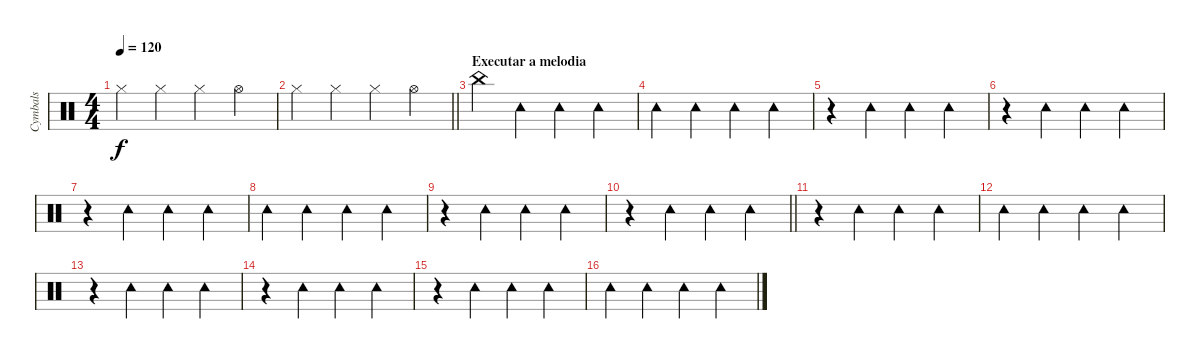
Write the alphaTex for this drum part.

\track ("Cymbals" "Cymbals") {instrument percussion}
\staff {score}
\articulation defaults
\ts (4 4)
\tempo 120
\clef neutral
\ks c "Hi-Hat (closed)".4{dy f} "Hi-Hat (closed)".4 "Hi-Hat (closed)".4 "Hi-Hat (open)".4
|
\barLineRight lightlight "Hi-Hat (closed)".4 "Hi-Hat (closed)".4 "Hi-Hat (closed)".4 "Hi-Hat (open)".4
|
\section ("" "Executar a melodia")
"China (hit)".4 "Tambourine (hit)".4 "Tambourine (hit)".4 "Tambourine (hit)".4 |
"Tambourine (hit)".4 "Tambourine (hit)".4 "Tambourine (hit)".4 "Tambourine (hit)".4 |
r.4 "Tambourine (hit)".4 "Tambourine (hit)".4 "Tambourine (hit)".4 |
r.4 "Tambourine (hit)".4 "Tambourine (hit)".4 "Tambourine (hit)".4 |
r.4 "Tambourine (hit)".4 "Tambourine (hit)".4 "Tambourine (hit)".4 |
"Tambourine (hit)".4 "Tambourine (hit)".4 "Tambourine (hit)".4 "Tambourine (hit)".4 |
r.4 "Tambourine (hit)".4 "Tambourine (hit)".4 "Tambourine (hit)".4 |
\barLineRight lightlight
r.4 "Tambourine (hit)".4 "Tambourine (hit)".4 "Tambourine (hit)".4 |
r.4 "Tambourine (hit)".4 "Tambourine (hit)".4 "Tambourine (hit)".4 |
"Tambourine (hit)".4 "Tambourine (hit)".4 "Tambourine (hit)".4 "Tambourine (hit)".4 |
r.4 "Tambourine (hit)".4 "Tambourine (hit)".4 "Tambourine (hit)".4 |
r.4 "Tambourine (hit)".4 "Tambourine (hit)".4 "Tambourine (hit)".4 |
r.4 "Tambourine (hit)".4 "Tambourine (hit)".4 "Tambourine (hit)".4 |
"Tambourine (hit)".4 "Tambourine (hit)".4 "Tambourine (hit)".4 "Tambourine (hit)".4
